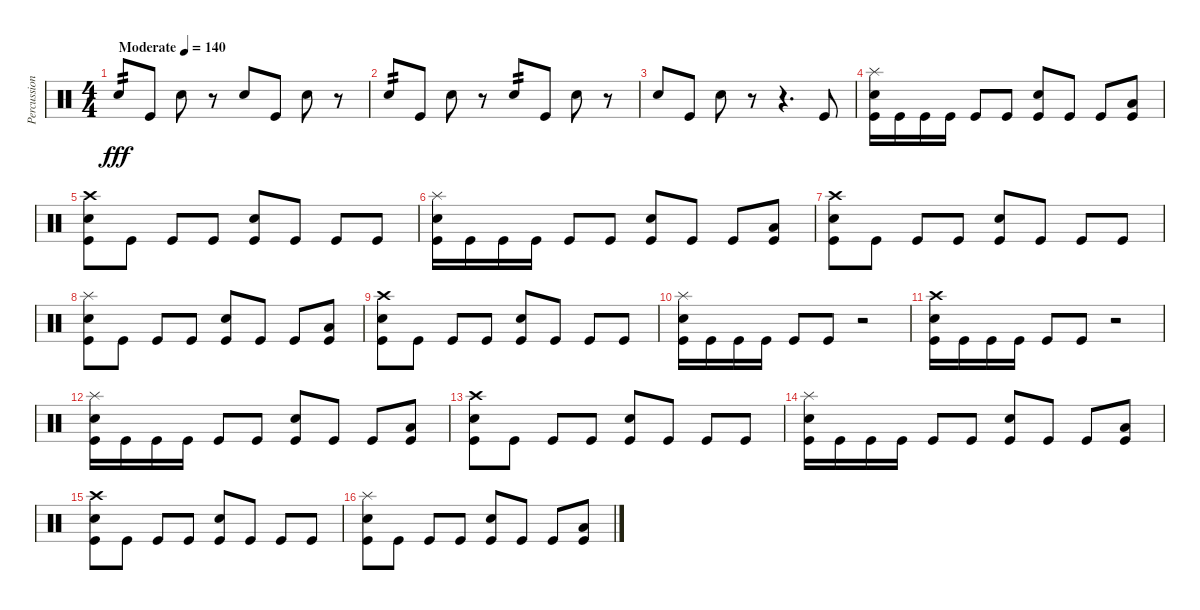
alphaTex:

\track ("Percussion" "Percussion") {instrument percussion}
\staff {score}
\articulation defaults
\ts (4 4)
\tempo (140 "Moderate")
\clef neutral
\ks c "Snare (hit) 2".8{tp 2 dy fff} "Kick (hit)".8 "Snare (hit) 2".8
r.8 "Snare (hit) 2".8 "Kick (hit)".8 "Snare (hit) 2".8 r.8 |
"Snare (hit) 2".8{tp 2} "Kick (hit)".8 "Snare (hit) 2".8 r.8 "Snare (hit) 2".8{tp 2} "Kick (hit)".8 "Snare (hit) 2".8 r.8 |
"Snare (hit) 2".8 "Kick (hit)".8 "Snare (hit) 2".8 r.8 r.4{d} "Kick (hit)".8 |
("Splash (hit)" "Snare (hit) 2" "Kick (hit)").16 "Kick (hit)".16 "Kick (hit)".16 "Kick (hit)".16 "Kick (hit)".8 "Kick (hit)".8 ("Snare (hit) 2" "Kick (hit)").8 "Kick (hit)".8 "Kick (hit)".8 ("Low Floor Tom (hit)" "Kick (hit)").8 |
("Crash high (hit)" "Snare (hit) 2" "Kick (hit)").8 "Kick (hit)".8 "Kick (hit)".8 "Kick (hit)".8 ("Snare (hit) 2" "Kick (hit)").8 "Kick (hit)".8 "Kick (hit)".8 "Kick (hit)".8 |
("Splash (hit)" "Snare (hit) 2" "Kick (hit)").16 "Kick (hit)".16 "Kick (hit)".16 "Kick (hit)".16 "Kick (hit)".8 "Kick (hit)".8 ("Snare (hit) 2" "Kick (hit)").8 "Kick (hit)".8 "Kick (hit)".8 ("Low Floor Tom (hit)" "Kick (hit)").8 |
("Crash high (hit)" "Snare (hit) 2" "Kick (hit)").8 "Kick (hit)".8 "Kick (hit)".8 "Kick (hit)".8 ("Snare (hit) 2" "Kick (hit)").8 "Kick (hit)".8 "Kick (hit)".8 "Kick (hit)".8 |
("Splash (hit)" "Snare (hit) 2" "Kick (hit)").8 "Kick (hit)".8 "Kick (hit)".8 "Kick (hit)".8 ("Snare (hit) 2" "Kick (hit)").8 "Kick (hit)".8 "Kick (hit)".8 ("Low Floor Tom (hit)" "Kick (hit)").8 |
("Crash high (hit)" "Snare (hit) 2" "Kick (hit)").8 "Kick (hit)".8 "Kick (hit)".8 "Kick (hit)".8 ("Snare (hit) 2" "Kick (hit)").8 "Kick (hit)".8 "Kick (hit)".8 "Kick (hit)".8 |
("Splash (hit)" "Snare (hit) 2" "Kick (hit)").16 "Kick (hit)".16 "Kick (hit)".16 "Kick (hit)".16 "Kick (hit)".8 "Kick (hit)".8 r.2 |
("Crash high (hit)" "Snare (hit) 2" "Kick (hit)").16 "Kick (hit)".16 "Kick (hit)".16 "Kick (hit)".16 "Kick (hit)".8 "Kick (hit)".8 r.2 |
("Splash (hit)" "Snare (hit) 2" "Kick (hit)").16 "Kick (hit)".16 "Kick (hit)".16 "Kick (hit)".16 "Kick (hit)".8 "Kick (hit)".8 ("Snare (hit) 2" "Kick (hit)").8 "Kick (hit)".8 "Kick (hit)".8 ("Low Floor Tom (hit)" "Kick (hit)").8 |
("Crash high (hit)" "Snare (hit) 2" "Kick (hit)").8 "Kick (hit)".8 "Kick (hit)".8 "Kick (hit)".8 ("Snare (hit) 2" "Kick (hit)").8 "Kick (hit)".8 "Kick (hit)".8 "Kick (hit)".8 |
("Splash (hit)" "Snare (hit) 2" "Kick (hit)").16 "Kick (hit)".16 "Kick (hit)".16 "Kick (hit)".16 "Kick (hit)".8 "Kick (hit)".8 ("Snare (hit) 2" "Kick (hit)").8 "Kick (hit)".8 "Kick (hit)".8 ("Low Floor Tom (hit)" "Kick (hit)").8 |
("Crash high (hit)" "Snare (hit) 2" "Kick (hit)").8 "Kick (hit)".8 "Kick (hit)".8 "Kick (hit)".8 ("Snare (hit) 2" "Kick (hit)").8 "Kick (hit)".8 "Kick (hit)".8 "Kick (hit)".8 |
("Splash (hit)" "Snare (hit) 2" "Kick (hit)").8 "Kick (hit)".8 "Kick (hit)".8 "Kick (hit)".8 ("Snare (hit) 2" "Kick (hit)").8 "Kick (hit)".8 "Kick (hit)".8 ("Low Floor Tom (hit)" "Kick (hit)").8
